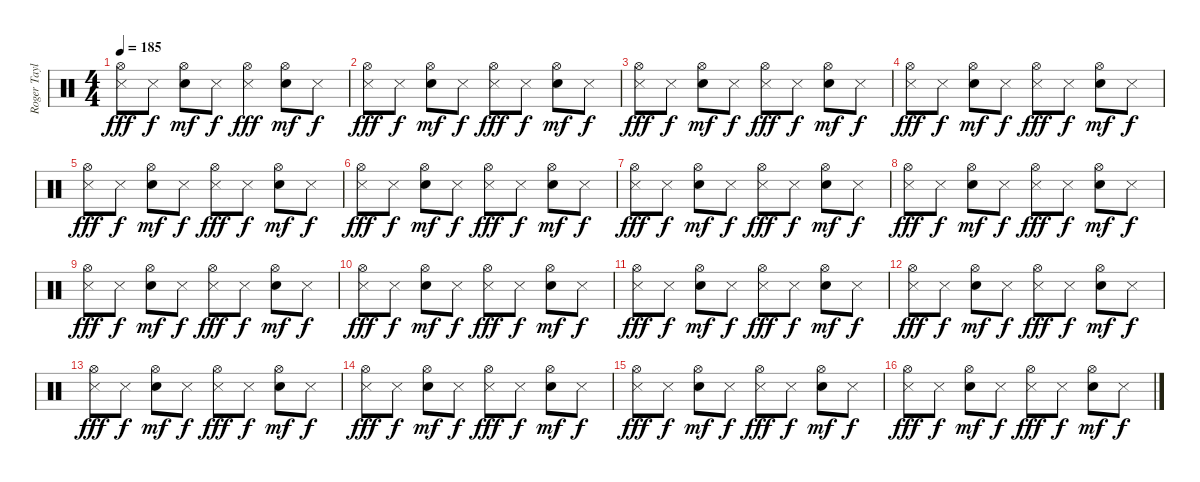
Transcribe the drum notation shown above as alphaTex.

\track ("Roger Taylor" "Roger Tayl") {instrument percussion}
\staff {score}
\articulation defaults
\ts (4 4)
\tempo 185
\clef neutral
\ks c
("Metronome (hit)" "Hi-Hat (open)").8{dy fff} "Metronome (hit)".8{dy f} ("Snare (hit) 2" "Hi-Hat (open)").8{dy mf} "Metronome (hit)".8{dy f} ("Metronome (hit)" "Hi-Hat (open)").4{dy fff} ("Snare (hit) 2" "Hi-Hat (open)").8{dy mf} "Metronome (hit)".8{dy f} |
("Metronome (hit)" "Hi-Hat (open)").8{dy fff} "Metronome (hit)".8{dy f} ("Snare (hit) 2" "Hi-Hat (open)").8{dy mf} "Metronome (hit)".8{dy f} ("Metronome (hit)" "Hi-Hat (open)").8{dy fff} "Metronome (hit)".8{dy f} ("Snare (hit) 2" "Hi-Hat (open)").8{dy mf} "Metronome (hit)".8{dy f} |
("Metronome (hit)" "Hi-Hat (open)").8{dy fff} "Metronome (hit)".8{dy f} ("Snare (hit) 2" "Hi-Hat (open)").8{dy mf} "Metronome (hit)".8{dy f} ("Metronome (hit)" "Hi-Hat (open)").8{dy fff} "Metronome (hit)".8{dy f} ("Snare (hit) 2" "Hi-Hat (open)").8{dy mf} "Metronome (hit)".8{dy f} |
("Metronome (hit)" "Hi-Hat (open)").8{dy fff} "Metronome (hit)".8{dy f} ("Snare (hit) 2" "Hi-Hat (open)").8{dy mf} "Metronome (hit)".8{dy f} ("Metronome (hit)" "Hi-Hat (open)").8{dy fff} "Metronome (hit)".8{dy f} ("Snare (hit) 2" "Hi-Hat (open)").8{dy mf} "Metronome (hit)".8{dy f} |
("Metronome (hit)" "Hi-Hat (open)").8{dy fff} "Metronome (hit)".8{dy f} ("Snare (hit) 2" "Hi-Hat (open)").8{dy mf} "Metronome (hit)".8{dy f} ("Metronome (hit)" "Hi-Hat (open)").8{dy fff} "Metronome (hit)".8{dy f} ("Snare (hit) 2" "Hi-Hat (open)").8{dy mf} "Metronome (hit)".8{dy f} |
("Metronome (hit)" "Hi-Hat (open)").8{dy fff} "Metronome (hit)".8{dy f} ("Snare (hit) 2" "Hi-Hat (open)").8{dy mf} "Metronome (hit)".8{dy f} ("Metronome (hit)" "Hi-Hat (open)").8{dy fff} "Metronome (hit)".8{dy f} ("Snare (hit) 2" "Hi-Hat (open)").8{dy mf} "Metronome (hit)".8{dy f} |
("Metronome (hit)" "Hi-Hat (open)").8{dy fff} "Metronome (hit)".8{dy f} ("Snare (hit) 2" "Hi-Hat (open)").8{dy mf} "Metronome (hit)".8{dy f} ("Metronome (hit)" "Hi-Hat (open)").8{dy fff} "Metronome (hit)".8{dy f} ("Snare (hit) 2" "Hi-Hat (open)").8{dy mf} "Metronome (hit)".8{dy f} |
("Metronome (hit)" "Hi-Hat (open)").8{dy fff} "Metronome (hit)".8{dy f} ("Snare (hit) 2" "Hi-Hat (open)").8{dy mf} "Metronome (hit)".8{dy f} ("Metronome (hit)" "Hi-Hat (open)").8{dy fff} "Metronome (hit)".8{dy f} ("Snare (hit) 2" "Hi-Hat (open)").8{dy mf} "Metronome (hit)".8{dy f} |
("Metronome (hit)" "Hi-Hat (open)").8{dy fff} "Metronome (hit)".8{dy f} ("Snare (hit) 2" "Hi-Hat (open)").8{dy mf} "Metronome (hit)".8{dy f} ("Metronome (hit)" "Hi-Hat (open)").8{dy fff} "Metronome (hit)".8{dy f} ("Snare (hit) 2" "Hi-Hat (open)").8{dy mf} "Metronome (hit)".8{dy f} |
("Metronome (hit)" "Hi-Hat (open)").8{dy fff} "Metronome (hit)".8{dy f} ("Snare (hit) 2" "Hi-Hat (open)").8{dy mf} "Metronome (hit)".8{dy f} ("Metronome (hit)" "Hi-Hat (open)").8{dy fff} "Metronome (hit)".8{dy f} ("Snare (hit) 2" "Hi-Hat (open)").8{dy mf} "Metronome (hit)".8{dy f} |
("Metronome (hit)" "Hi-Hat (open)").8{dy fff} "Metronome (hit)".8{dy f} ("Snare (hit) 2" "Hi-Hat (open)").8{dy mf} "Metronome (hit)".8{dy f} ("Metronome (hit)" "Hi-Hat (open)").8{dy fff} "Metronome (hit)".8{dy f} ("Snare (hit) 2" "Hi-Hat (open)").8{dy mf} "Metronome (hit)".8{dy f} |
("Metronome (hit)" "Hi-Hat (open)").8{dy fff} "Metronome (hit)".8{dy f} ("Snare (hit) 2" "Hi-Hat (open)").8{dy mf} "Metronome (hit)".8{dy f} ("Metronome (hit)" "Hi-Hat (open)").8{dy fff} "Metronome (hit)".8{dy f} ("Snare (hit) 2" "Hi-Hat (open)").8{dy mf} "Metronome (hit)".8{dy f} |
("Metronome (hit)" "Hi-Hat (open)").8{dy fff} "Metronome (hit)".8{dy f} ("Snare (hit) 2" "Hi-Hat (open)").8{dy mf} "Metronome (hit)".8{dy f} ("Metronome (hit)" "Hi-Hat (open)").8{dy fff} "Metronome (hit)".8{dy f} ("Snare (hit) 2" "Hi-Hat (open)").8{dy mf} "Metronome (hit)".8{dy f} |
("Metronome (hit)" "Hi-Hat (open)").8{dy fff} "Metronome (hit)".8{dy f} ("Snare (hit) 2" "Hi-Hat (open)").8{dy mf} "Metronome (hit)".8{dy f} ("Metronome (hit)" "Hi-Hat (open)").8{dy fff} "Metronome (hit)".8{dy f} ("Snare (hit) 2" "Hi-Hat (open)").8{dy mf} "Metronome (hit)".8{dy f} |
("Metronome (hit)" "Hi-Hat (open)").8{dy fff} "Metronome (hit)".8{dy f} ("Snare (hit) 2" "Hi-Hat (open)").8{dy mf} "Metronome (hit)".8{dy f} ("Metronome (hit)" "Hi-Hat (open)").8{dy fff} "Metronome (hit)".8{dy f} ("Snare (hit) 2" "Hi-Hat (open)").8{dy mf} "Metronome (hit)".8{dy f} |
("Metronome (hit)" "Hi-Hat (open)").8{dy fff} "Metronome (hit)".8{dy f} ("Snare (hit) 2" "Hi-Hat (open)").8{dy mf} "Metronome (hit)".8{dy f} ("Metronome (hit)" "Hi-Hat (open)").8{dy fff} "Metronome (hit)".8{dy f} ("Snare (hit) 2" "Hi-Hat (open)").8{dy mf} "Metronome (hit)".8{dy f}
